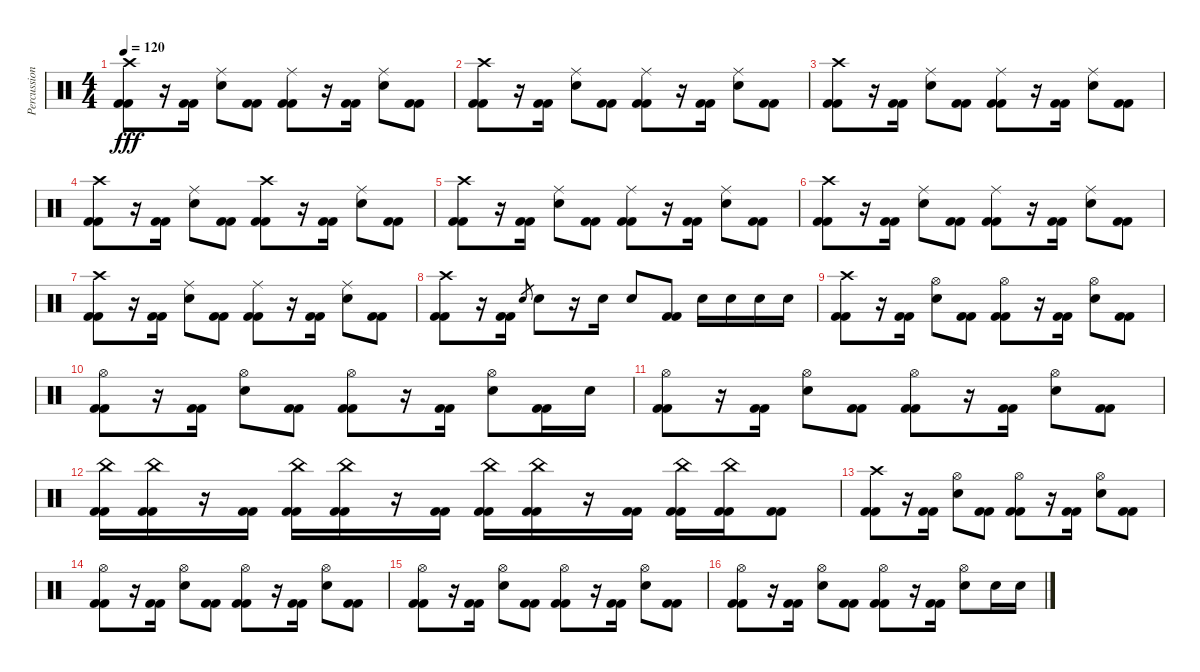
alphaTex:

\track ("Percussioni" "Percussion") {instrument percussion}
\staff {score}
\articulation defaults
\ts (4 4)
\tempo 120
\clef neutral
\ks c
("Crash high (hit)" "Kick (hit) 2" "Kick (hit) 2").8{dy fff} r.16 ("Kick (hit) 2" "Kick (hit) 2").16 ("Ride (middle)" "Snare (hit) 2").8 ("Kick (hit) 2" "Kick (hit) 2").8 ("Ride (middle)" "Kick (hit) 2" "Kick (hit) 2").8 r.16 ("Kick (hit) 2" "Kick (hit) 2").16 ("Ride (middle)" "Snare (hit) 2").8 ("Kick (hit) 2" "Kick (hit) 2").8 |
("Crash high (hit)" "Kick (hit) 2" "Kick (hit) 2").8 r.16 ("Kick (hit) 2" "Kick (hit) 2").16 ("Ride (middle)" "Snare (hit) 2").8 ("Kick (hit) 2" "Kick (hit) 2").8 ("Ride (middle)" "Kick (hit) 2" "Kick (hit) 2").8 r.16 ("Kick (hit) 2" "Kick (hit) 2").16 ("Ride (middle)" "Snare (hit) 2").8 ("Kick (hit) 2" "Kick (hit) 2").8 |
("Crash high (hit)" "Kick (hit) 2" "Kick (hit) 2").8 r.16 ("Kick (hit) 2" "Kick (hit) 2").16 ("Ride (middle)" "Snare (hit) 2").8 ("Kick (hit) 2" "Kick (hit) 2").8 ("Ride (middle)" "Kick (hit) 2" "Kick (hit) 2").8 r.16 ("Kick (hit) 2" "Kick (hit) 2").16 ("Ride (middle)" "Snare (hit) 2").8 ("Kick (hit) 2" "Kick (hit) 2").8 |
("Crash high (hit)" "Kick (hit) 2" "Kick (hit) 2").8 r.16 ("Kick (hit) 2" "Kick (hit) 2").16 ("Ride (middle)" "Snare (hit) 2").8 ("Kick (hit) 2" "Kick (hit) 2").8 ("Crash high (hit)" "Kick (hit) 2" "Kick (hit) 2").8 r.16 ("Kick (hit) 2" "Kick (hit) 2").16 ("Ride (middle)" "Snare (hit) 2").8 ("Kick (hit) 2" "Kick (hit) 2").8 |
("Crash high (hit)" "Kick (hit) 2" "Kick (hit) 2").8 r.16 ("Kick (hit) 2" "Kick (hit) 2").16 ("Ride (middle)" "Snare (hit) 2").8 ("Kick (hit) 2" "Kick (hit) 2").8 ("Ride (middle)" "Kick (hit) 2" "Kick (hit) 2").8 r.16 ("Kick (hit) 2" "Kick (hit) 2").16 ("Ride (middle)" "Snare (hit) 2").8 ("Kick (hit) 2" "Kick (hit) 2").8 |
("Crash high (hit)" "Kick (hit) 2" "Kick (hit) 2").8 r.16 ("Kick (hit) 2" "Kick (hit) 2").16 ("Ride (middle)" "Snare (hit) 2").8 ("Kick (hit) 2" "Kick (hit) 2").8 ("Ride (middle)" "Kick (hit) 2" "Kick (hit) 2").8 r.16 ("Kick (hit) 2" "Kick (hit) 2").16 ("Ride (middle)" "Snare (hit) 2").8 ("Kick (hit) 2" "Kick (hit) 2").8 |
("Crash high (hit)" "Kick (hit) 2" "Kick (hit) 2").8 r.16 ("Kick (hit) 2" "Kick (hit) 2").16 ("Ride (middle)" "Snare (hit) 2").8 ("Kick (hit) 2" "Kick (hit) 2").8 ("Ride (middle)" "Kick (hit) 2" "Kick (hit) 2").8 r.16 ("Kick (hit) 2" "Kick (hit) 2").16 ("Ride (middle)" "Snare (hit) 2").8 ("Kick (hit) 2" "Kick (hit) 2").8 |
("Crash high (hit)" "Kick (hit) 2" "Kick (hit) 2").8 r.16 ("Kick (hit) 2" "Kick (hit) 2").16 "Snare (hit) 2".8{gr} "Snare (hit) 2".8 r.16 "Snare (hit) 2".16 "Snare (hit) 2".8 ("Kick (hit) 2" "Kick (hit) 2").8 "Snare (hit) 2".16 "Snare (hit) 2".16 "Snare (hit) 2".16 "Snare (hit) 2".16 |
("Crash high (hit)" "Kick (hit) 2" "Kick (hit) 2").8 r.16 ("Kick (hit) 2" "Kick (hit) 2").16 ("Hi-Hat (open)" "Snare (hit) 2").8 ("Kick (hit) 2" "Kick (hit) 2").8 ("Hi-Hat (open)" "Kick (hit) 2" "Kick (hit) 2").8 r.16 ("Kick (hit) 2" "Kick (hit) 2").16 ("Hi-Hat (open)" "Snare (hit) 2").8 ("Kick (hit) 2" "Kick (hit) 2").8 |
("Hi-Hat (open)" "Kick (hit) 2" "Kick (hit) 2").8 r.16 ("Kick (hit) 2" "Kick (hit) 2").16 ("Hi-Hat (open)" "Snare (hit) 2").8 ("Kick (hit) 2" "Kick (hit) 2").8 ("Hi-Hat (open)" "Kick (hit) 2" "Kick (hit) 2").8 r.16 ("Kick (hit) 2" "Kick (hit) 2").16 ("Hi-Hat (open)" "Snare (hit) 2").8 ("Kick (hit) 2" "Kick (hit) 2").16 "Snare (hit) 2".16 |
("Hi-Hat (open)" "Kick (hit) 2" "Kick (hit) 2").8 r.16 ("Kick (hit) 2" "Kick (hit) 2").16 ("Hi-Hat (open)" "Snare (hit) 2").8 ("Kick (hit) 2" "Kick (hit) 2").8 ("Hi-Hat (open)" "Kick (hit) 2" "Kick (hit) 2").8 r.16 ("Kick (hit) 2" "Kick (hit) 2").16 ("Hi-Hat (open)" "Snare (hit) 2").8 ("Kick (hit) 2" "Kick (hit) 2").8 |
("China (hit)" "Kick (hit) 2" "Kick (hit) 2").16 ("China (hit)" "Kick (hit) 2" "Kick (hit) 2").16 r.16 ("Kick (hit) 2" "Kick (hit) 2").16 ("China (hit)" "Kick (hit) 2" "Kick (hit) 2").16 ("China (hit)" "Kick (hit) 2" "Kick (hit) 2").16 r.16 ("Kick (hit) 2" "Kick (hit) 2").16 ("China (hit)" "Kick (hit) 2" "Kick (hit) 2").16 ("China (hit)" "Kick (hit) 2" "Kick (hit) 2").16 r.16 ("Kick (hit) 2" "Kick (hit) 2").16 ("China (hit)" "Kick (hit) 2" "Kick (hit) 2").16 ("China (hit)" "Kick (hit) 2" "Kick (hit) 2").16 ("Kick (hit) 2" "Kick (hit) 2").8 |
("Crash high (hit)" "Kick (hit) 2" "Kick (hit) 2").8 r.16 ("Kick (hit) 2" "Kick (hit) 2").16 ("Hi-Hat (open)" "Snare (hit) 2").8 ("Kick (hit) 2" "Kick (hit) 2").8 ("Hi-Hat (open)" "Kick (hit) 2" "Kick (hit) 2").8 r.16 ("Kick (hit) 2" "Kick (hit) 2").16 ("Hi-Hat (open)" "Snare (hit) 2").8 ("Kick (hit) 2" "Kick (hit) 2").8 |
("Hi-Hat (open)" "Kick (hit) 2" "Kick (hit) 2").8 r.16 ("Kick (hit) 2" "Kick (hit) 2").16 ("Hi-Hat (open)" "Snare (hit) 2").8 ("Kick (hit) 2" "Kick (hit) 2").8 ("Hi-Hat (open)" "Kick (hit) 2" "Kick (hit) 2").8 r.16 ("Kick (hit) 2" "Kick (hit) 2").16 ("Hi-Hat (open)" "Snare (hit) 2").8 ("Kick (hit) 2" "Kick (hit) 2").8 |
("Hi-Hat (open)" "Kick (hit) 2" "Kick (hit) 2").8 r.16 ("Kick (hit) 2" "Kick (hit) 2").16 ("Hi-Hat (open)" "Snare (hit) 2").8 ("Kick (hit) 2" "Kick (hit) 2").8 ("Hi-Hat (open)" "Kick (hit) 2" "Kick (hit) 2").8 r.16 ("Kick (hit) 2" "Kick (hit) 2").16 ("Hi-Hat (open)" "Snare (hit) 2").8 ("Kick (hit) 2" "Kick (hit) 2").8 |
("Hi-Hat (open)" "Kick (hit) 2" "Kick (hit) 2").8 r.16 ("Kick (hit) 2" "Kick (hit) 2").16 ("Hi-Hat (open)" "Snare (hit) 2").8 ("Kick (hit) 2" "Kick (hit) 2").8 ("Hi-Hat (open)" "Kick (hit) 2" "Kick (hit) 2").8 r.16 ("Kick (hit) 2" "Kick (hit) 2").16 ("Hi-Hat (open)" "Snare (hit) 2").8 "Snare (hit) 2".16 "Snare (hit) 2".16
